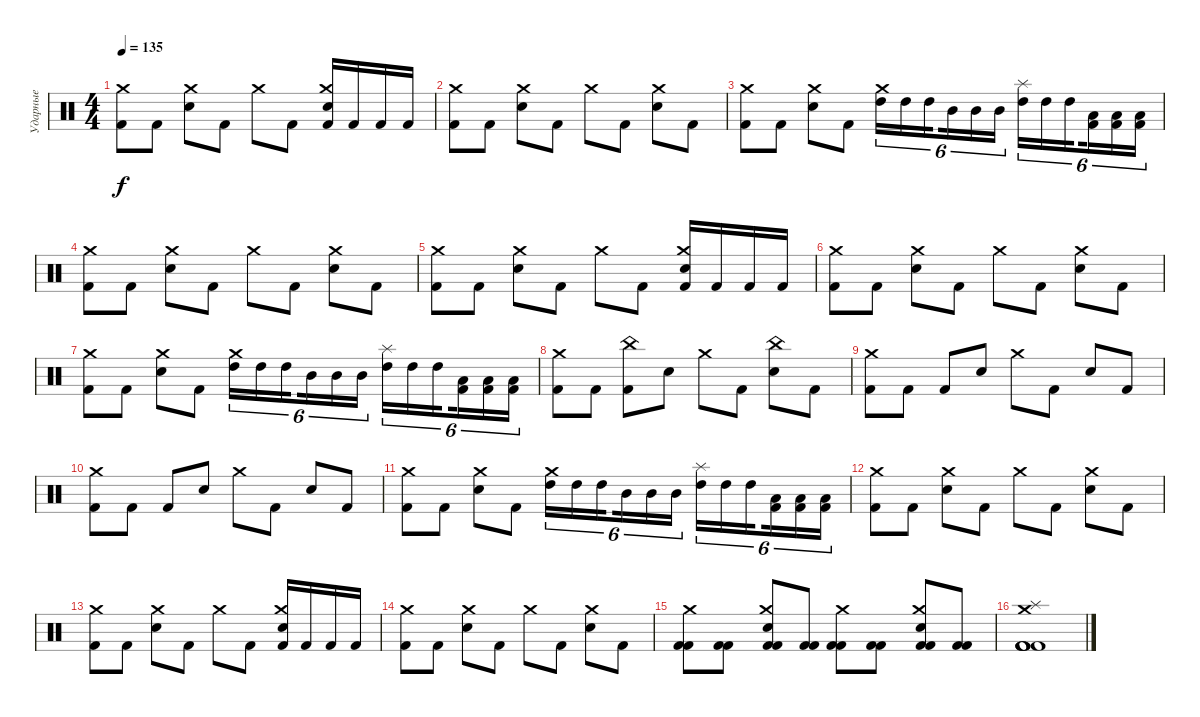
\track ("Ударные" "Ударные") {instrument percussion}
\staff {score}
\articulation defaults
\ts (4 4)
\tempo 135
\clef neutral
\ks c
("Kick (hit) 2" "Crash medium (hit)").8{dy f} "Kick (hit) 2".8 ("Snare (hit) 2" "Crash medium (hit)").8 "Kick (hit) 2".8 "Crash medium (hit)".8 "Kick (hit) 2".8 ("Crash medium (hit)" "Snare (hit) 2" "Kick (hit) 2").16 "Kick (hit) 2".16 "Kick (hit) 2".16 "Kick (hit) 2".16 |
("Kick (hit) 2" "Crash medium (hit)").8 "Kick (hit) 2".8 ("Snare (hit) 2" "Crash medium (hit)").8 "Kick (hit) 2".8 "Crash medium (hit)".8 "Kick (hit) 2".8 ("Crash medium (hit)" "Snare (hit) 2").8 "Kick (hit) 2".8 |
("Kick (hit) 2" "Crash medium (hit)").8 "Kick (hit) 2".8 ("Snare (hit) 2" "Crash medium (hit)").8 "Kick (hit) 2".8 ("High Tom (hit)" "Crash medium (hit)").16{tu (6 4)} "High Tom (hit)".16{tu (6 4)} "High Tom (hit)".16{tu (6 4) beam splitsecondary} "Mid Tom (hit)".16{tu (6 4)} "Mid Tom (hit)".16{tu (6 4)} "Mid Tom (hit)".16{tu (6 4)} ("High Tom (hit)" "Splash (hit)").16{tu (6 4)} "High Tom (hit)".16{tu (6 4)} "High Tom (hit)".16{tu (6 4) beam splitsecondary} ("Low Tom (hit)" "Kick (hit) 2").16{tu (6 4)} ("Low Tom (hit)" "Kick (hit) 2").16{tu (6 4)} ("Low Tom (hit)" "Kick (hit) 2").16{tu (6 4)} |
("Kick (hit) 2" "Crash medium (hit)").8 "Kick (hit) 2".8 ("Snare (hit) 2" "Crash medium (hit)").8 "Kick (hit) 2".8 "Crash medium (hit)".8 "Kick (hit) 2".8 ("Crash medium (hit)" "Snare (hit) 2").8 "Kick (hit) 2".8 |
("Kick (hit) 2" "Crash medium (hit)").8 "Kick (hit) 2".8 ("Snare (hit) 2" "Crash medium (hit)").8 "Kick (hit) 2".8 "Crash medium (hit)".8 "Kick (hit) 2".8 ("Crash medium (hit)" "Snare (hit) 2" "Kick (hit) 2").16 "Kick (hit) 2".16 "Kick (hit) 2".16 "Kick (hit) 2".16 |
("Kick (hit) 2" "Crash medium (hit)").8 "Kick (hit) 2".8 ("Snare (hit) 2" "Crash medium (hit)").8 "Kick (hit) 2".8 "Crash medium (hit)".8 "Kick (hit) 2".8 ("Crash medium (hit)" "Snare (hit) 2").8 "Kick (hit) 2".8 |
("Kick (hit) 2" "Crash medium (hit)").8 "Kick (hit) 2".8 ("Snare (hit) 2" "Crash medium (hit)").8 "Kick (hit) 2".8 ("High Tom (hit)" "Crash medium (hit)").16{tu (6 4)} "High Tom (hit)".16{tu (6 4)} "High Tom (hit)".16{tu (6 4) beam splitsecondary} "Mid Tom (hit)".16{tu (6 4)} "Mid Tom (hit)".16{tu (6 4)} "Mid Tom (hit)".16{tu (6 4)} ("High Tom (hit)" "Splash (hit)").16{tu (6 4)} "High Tom (hit)".16{tu (6 4)} "High Tom (hit)".16{tu (6 4) beam splitsecondary} ("Low Tom (hit)" "Kick (hit) 2").16{tu (6 4)} ("Low Tom (hit)" "Kick (hit) 2").16{tu (6 4)} ("Low Tom (hit)" "Kick (hit) 2").16{tu (6 4)} |
("Kick (hit) 2" "Crash medium (hit)").8 "Kick (hit) 2".8 ("Kick (hit) 2" "China (hit)").8 "Snare (hit) 2".8 "Crash medium (hit)".8 "Kick (hit) 2".8 ("China (hit)" "Snare (hit) 2").8 "Kick (hit) 2".8 |
("Kick (hit) 2" "Crash medium (hit)").8 "Kick (hit) 2".8 "Kick (hit) 2".8 "Snare (hit) 2".8 "Crash medium (hit)".8 "Kick (hit) 2".8 "Snare (hit) 2".8 "Kick (hit) 2".8 |
("Kick (hit) 2" "Crash medium (hit)").8 "Kick (hit) 2".8 "Kick (hit) 2".8 "Snare (hit) 2".8 "Crash medium (hit)".8 "Kick (hit) 2".8 "Snare (hit) 2".8 "Kick (hit) 2".8 |
("Kick (hit) 2" "Crash medium (hit)").8 "Kick (hit) 2".8 ("Snare (hit) 2" "Crash medium (hit)").8 "Kick (hit) 2".8 ("High Tom (hit)" "Crash medium (hit)").16{tu (6 4)} "High Tom (hit)".16{tu (6 4)} "High Tom (hit)".16{tu (6 4) beam splitsecondary} "Mid Tom (hit)".16{tu (6 4)} "Mid Tom (hit)".16{tu (6 4)} "Mid Tom (hit)".16{tu (6 4)} ("High Tom (hit)" "Splash (hit)").16{tu (6 4)} "High Tom (hit)".16{tu (6 4)} "High Tom (hit)".16{tu (6 4) beam splitsecondary} ("Low Tom (hit)" "Kick (hit) 2").16{tu (6 4)} ("Low Tom (hit)" "Kick (hit) 2").16{tu (6 4)} ("Low Tom (hit)" "Kick (hit) 2").16{tu (6 4)} |
("Kick (hit) 2" "Crash medium (hit)").8 "Kick (hit) 2".8 ("Snare (hit) 2" "Crash medium (hit)").8 "Kick (hit) 2".8 "Crash medium (hit)".8 "Kick (hit) 2".8 ("Crash medium (hit)" "Snare (hit) 2").8 "Kick (hit) 2".8 |
("Kick (hit) 2" "Crash medium (hit)").8 "Kick (hit) 2".8 ("Snare (hit) 2" "Crash medium (hit)").8 "Kick (hit) 2".8 "Crash medium (hit)".8 "Kick (hit) 2".8 ("Crash medium (hit)" "Snare (hit) 2" "Kick (hit) 2").16 "Kick (hit) 2".16 "Kick (hit) 2".16 "Kick (hit) 2".16 |
("Kick (hit) 2" "Crash medium (hit)").8 "Kick (hit) 2".8 ("Snare (hit) 2" "Crash medium (hit)").8 "Kick (hit) 2".8 "Crash medium (hit)".8 "Kick (hit) 2".8 ("Crash medium (hit)" "Snare (hit) 2").8 "Kick (hit) 2".8 |
("Kick (hit) 2" "Crash medium (hit)" "Kick (hit) 2").8 ("Kick (hit) 2" "Kick (hit) 2").8 ("Snare (hit) 2" "Crash medium (hit)" "Kick (hit) 2" "Kick (hit) 2").8 ("Kick (hit) 2" "Kick (hit) 2").8 ("Kick (hit) 2" "Kick (hit) 2" "Crash medium (hit)").8 ("Kick (hit) 2" "Kick (hit) 2").8 ("Crash medium (hit)" "Snare (hit) 2" "Kick (hit) 2" "Kick (hit) 2").8 ("Kick (hit) 2" "Kick (hit) 2").8 |
("Kick (hit) 2" "Splash (hit)" "Crash medium (hit)" "Kick (hit) 2" "Kick (hit) 2" "Kick (hit) 2").1
